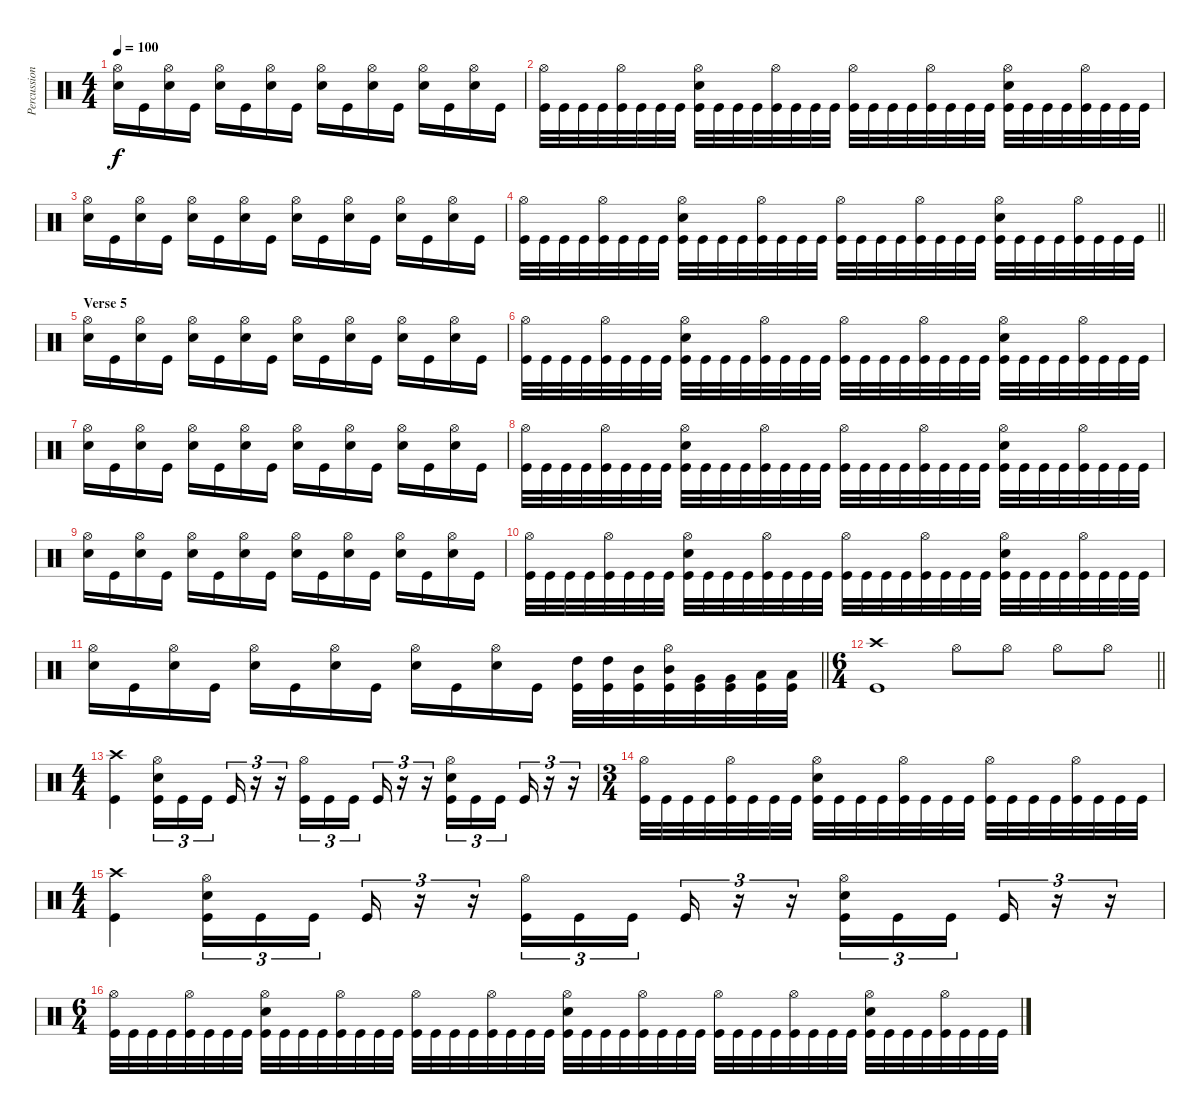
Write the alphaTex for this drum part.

\track ("Percussions" "Percussion") {instrument percussion}
\staff {score}
\articulation defaults
\ts (4 4)
\section ("" "")
\tempo 100
\clef neutral
\ks c
("Hi-Hat (open)" "Electric Snare (hit)").16{dy f} "Kick (hit)".16 ("Hi-Hat (open)" "Electric Snare (hit)").16 "Kick (hit)".16 ("Hi-Hat (open)" "Electric Snare (hit)").16 "Kick (hit)".16 ("Hi-Hat (open)" "Electric Snare (hit)").16 "Kick (hit)".16 ("Hi-Hat (open)" "Electric Snare (hit)").16 "Kick (hit)".16 ("Hi-Hat (open)" "Electric Snare (hit)").16 "Kick (hit)".16 ("Hi-Hat (open)" "Electric Snare (hit)").16 "Kick (hit)".16 ("Hi-Hat (open)" "Electric Snare (hit)").16 "Kick (hit)".16 |
("Hi-Hat (open)" "Kick (hit)").32 "Kick (hit)".32 "Kick (hit)".32 "Kick (hit)".32 ("Hi-Hat (open)" "Kick (hit)").32 "Kick (hit)".32 "Kick (hit)".32 "Kick (hit)".32 ("Hi-Hat (open)" "Electric Snare (hit)" "Kick (hit)").32 "Kick (hit)".32 "Kick (hit)".32 "Kick (hit)".32 ("Hi-Hat (open)" "Kick (hit)").32 "Kick (hit)".32 "Kick (hit)".32 "Kick (hit)".32 ("Hi-Hat (open)" "Kick (hit)").32 "Kick (hit)".32 "Kick (hit)".32 "Kick (hit)".32 ("Hi-Hat (open)" "Kick (hit)").32 "Kick (hit)".32 "Kick (hit)".32 "Kick (hit)".32 ("Hi-Hat (open)" "Electric Snare (hit)" "Kick (hit)").32 "Kick (hit)".32 "Kick (hit)".32 "Kick (hit)".32 ("Hi-Hat (open)" "Kick (hit)").32 "Kick (hit)".32 "Kick (hit)".32 "Kick (hit)".32 |
("Hi-Hat (open)" "Electric Snare (hit)").16 "Kick (hit)".16 ("Hi-Hat (open)" "Electric Snare (hit)").16 "Kick (hit)".16 ("Hi-Hat (open)" "Electric Snare (hit)").16 "Kick (hit)".16 ("Hi-Hat (open)" "Electric Snare (hit)").16 "Kick (hit)".16 ("Hi-Hat (open)" "Electric Snare (hit)").16 "Kick (hit)".16 ("Hi-Hat (open)" "Electric Snare (hit)").16 "Kick (hit)".16 ("Hi-Hat (open)" "Electric Snare (hit)").16 "Kick (hit)".16 ("Hi-Hat (open)" "Electric Snare (hit)").16 "Kick (hit)".16 |
\barLineRight lightlight
("Hi-Hat (open)" "Kick (hit)").32 "Kick (hit)".32 "Kick (hit)".32 "Kick (hit)".32 ("Hi-Hat (open)" "Kick (hit)").32 "Kick (hit)".32 "Kick (hit)".32 "Kick (hit)".32 ("Hi-Hat (open)" "Electric Snare (hit)" "Kick (hit)").32 "Kick (hit)".32 "Kick (hit)".32 "Kick (hit)".32 ("Hi-Hat (open)" "Kick (hit)").32 "Kick (hit)".32 "Kick (hit)".32 "Kick (hit)".32 ("Hi-Hat (open)" "Kick (hit)").32 "Kick (hit)".32 "Kick (hit)".32 "Kick (hit)".32 ("Hi-Hat (open)" "Kick (hit)").32 "Kick (hit)".32 "Kick (hit)".32 "Kick (hit)".32 ("Hi-Hat (open)" "Electric Snare (hit)" "Kick (hit)").32 "Kick (hit)".32 "Kick (hit)".32 "Kick (hit)".32 ("Hi-Hat (open)" "Kick (hit)").32 "Kick (hit)".32 "Kick (hit)".32 "Kick (hit)".32 |
\section ("" "Verse 5")
("Hi-Hat (open)" "Electric Snare (hit)").16 "Kick (hit)".16 ("Hi-Hat (open)" "Electric Snare (hit)").16 "Kick (hit)".16 ("Hi-Hat (open)" "Electric Snare (hit)").16 "Kick (hit)".16 ("Hi-Hat (open)" "Electric Snare (hit)").16 "Kick (hit)".16 ("Hi-Hat (open)" "Electric Snare (hit)").16 "Kick (hit)".16 ("Hi-Hat (open)" "Electric Snare (hit)").16 "Kick (hit)".16 ("Hi-Hat (open)" "Electric Snare (hit)").16 "Kick (hit)".16 ("Hi-Hat (open)" "Electric Snare (hit)").16 "Kick (hit)".16 |
("Hi-Hat (open)" "Kick (hit)").32 "Kick (hit)".32 "Kick (hit)".32 "Kick (hit)".32 ("Hi-Hat (open)" "Kick (hit)").32 "Kick (hit)".32 "Kick (hit)".32 "Kick (hit)".32 ("Hi-Hat (open)" "Electric Snare (hit)" "Kick (hit)").32 "Kick (hit)".32 "Kick (hit)".32 "Kick (hit)".32 ("Hi-Hat (open)" "Kick (hit)").32 "Kick (hit)".32 "Kick (hit)".32 "Kick (hit)".32 ("Hi-Hat (open)" "Kick (hit)").32 "Kick (hit)".32 "Kick (hit)".32 "Kick (hit)".32 ("Hi-Hat (open)" "Kick (hit)").32 "Kick (hit)".32 "Kick (hit)".32 "Kick (hit)".32 ("Hi-Hat (open)" "Electric Snare (hit)" "Kick (hit)").32 "Kick (hit)".32 "Kick (hit)".32 "Kick (hit)".32 ("Hi-Hat (open)" "Kick (hit)").32 "Kick (hit)".32 "Kick (hit)".32 "Kick (hit)".32 |
("Hi-Hat (open)" "Electric Snare (hit)").16 "Kick (hit)".16 ("Hi-Hat (open)" "Electric Snare (hit)").16 "Kick (hit)".16 ("Hi-Hat (open)" "Electric Snare (hit)").16 "Kick (hit)".16 ("Hi-Hat (open)" "Electric Snare (hit)").16 "Kick (hit)".16 ("Hi-Hat (open)" "Electric Snare (hit)").16 "Kick (hit)".16 ("Hi-Hat (open)" "Electric Snare (hit)").16 "Kick (hit)".16 ("Hi-Hat (open)" "Electric Snare (hit)").16 "Kick (hit)".16 ("Hi-Hat (open)" "Electric Snare (hit)").16 "Kick (hit)".16 |
("Hi-Hat (open)" "Kick (hit)").32 "Kick (hit)".32 "Kick (hit)".32 "Kick (hit)".32 ("Hi-Hat (open)" "Kick (hit)").32 "Kick (hit)".32 "Kick (hit)".32 "Kick (hit)".32 ("Hi-Hat (open)" "Electric Snare (hit)" "Kick (hit)").32 "Kick (hit)".32 "Kick (hit)".32 "Kick (hit)".32 ("Hi-Hat (open)" "Kick (hit)").32 "Kick (hit)".32 "Kick (hit)".32 "Kick (hit)".32 ("Hi-Hat (open)" "Kick (hit)").32 "Kick (hit)".32 "Kick (hit)".32 "Kick (hit)".32 ("Hi-Hat (open)" "Kick (hit)").32 "Kick (hit)".32 "Kick (hit)".32 "Kick (hit)".32 ("Hi-Hat (open)" "Electric Snare (hit)" "Kick (hit)").32 "Kick (hit)".32 "Kick (hit)".32 "Kick (hit)".32 ("Hi-Hat (open)" "Kick (hit)").32 "Kick (hit)".32 "Kick (hit)".32 "Kick (hit)".32 |
("Hi-Hat (open)" "Electric Snare (hit)").16 "Kick (hit)".16 ("Hi-Hat (open)" "Electric Snare (hit)").16 "Kick (hit)".16 ("Hi-Hat (open)" "Electric Snare (hit)").16 "Kick (hit)".16 ("Hi-Hat (open)" "Electric Snare (hit)").16 "Kick (hit)".16 ("Hi-Hat (open)" "Electric Snare (hit)").16 "Kick (hit)".16 ("Hi-Hat (open)" "Electric Snare (hit)").16 "Kick (hit)".16 ("Hi-Hat (open)" "Electric Snare (hit)").16 "Kick (hit)".16 ("Hi-Hat (open)" "Electric Snare (hit)").16 "Kick (hit)".16 |
("Hi-Hat (open)" "Kick (hit)").32 "Kick (hit)".32 "Kick (hit)".32 "Kick (hit)".32 ("Hi-Hat (open)" "Kick (hit)").32 "Kick (hit)".32 "Kick (hit)".32 "Kick (hit)".32 ("Hi-Hat (open)" "Electric Snare (hit)" "Kick (hit)").32 "Kick (hit)".32 "Kick (hit)".32 "Kick (hit)".32 ("Hi-Hat (open)" "Kick (hit)").32 "Kick (hit)".32 "Kick (hit)".32 "Kick (hit)".32 ("Hi-Hat (open)" "Kick (hit)").32 "Kick (hit)".32 "Kick (hit)".32 "Kick (hit)".32 ("Hi-Hat (open)" "Kick (hit)").32 "Kick (hit)".32 "Kick (hit)".32 "Kick (hit)".32 ("Hi-Hat (open)" "Electric Snare (hit)" "Kick (hit)").32 "Kick (hit)".32 "Kick (hit)".32 "Kick (hit)".32 ("Hi-Hat (open)" "Kick (hit)").32 "Kick (hit)".32 "Kick (hit)".32 "Kick (hit)".32 |
\barLineRight lightlight
("Hi-Hat (open)" "Electric Snare (hit)").16 "Kick (hit)".16 ("Hi-Hat (open)" "Electric Snare (hit)").16 "Kick (hit)".16 ("Hi-Hat (open)" "Electric Snare (hit)").16 "Kick (hit)".16 ("Hi-Hat (open)" "Electric Snare (hit)").16 "Kick (hit)".16 ("Hi-Hat (open)" "Electric Snare (hit)").16 "Kick (hit)".16 ("Hi-Hat (open)" "Electric Snare (hit)").16 "Kick (hit)".16 ("High Tom (hit)" "Kick (hit)").32 ("High Tom (hit)" "Kick (hit)").32 ("Mid Tom (hit)" "Kick (hit)").32 ("Hi-Hat (open)" "Mid Tom (hit)" "Kick (hit)").32 ("Very Low Tom (hit)" "Kick (hit)").32 ("Very Low Tom (hit)" "Kick (hit)").32 ("Low Floor Tom (hit)" "Kick (hit)").32 ("Low Floor Tom (hit)" "Kick (hit)").32 |
\ts (6 4)
\section ("" "")
\barLineRight lightlight
("Crash high (hit)" "Kick (hit)").1 "Hi-Hat (open)".8 "Hi-Hat (open)".8 "Hi-Hat (open)".8 "Hi-Hat (open)".8 |
\ts (4 4)
\section ("" "")
("Crash high (hit)" "Kick (hit)").4 ("Hi-Hat (open)" "Electric Snare (hit)" "Kick (hit)").16{tu (3 2)} "Kick (hit)".16{tu (3 2)} "Kick (hit)".16{tu (3 2) beam splitsecondary} "Kick (hit)".16{tu (3 2)} r.16{tu (3 2)} r.16{tu (3 2)} ("Hi-Hat (open)" "Kick (hit)").16{tu (3 2)} "Kick (hit)".16{tu (3 2)} "Kick (hit)".16{tu (3 2) beam splitsecondary} "Kick (hit)".16{tu (3 2)} r.16{tu (3 2)} r.16{tu (3 2)} ("Hi-Hat (open)" "Electric Snare (hit)" "Kick (hit)").16{tu (3 2)} "Kick (hit)".16{tu (3 2)} "Kick (hit)".16{tu (3 2) beam splitsecondary} "Kick (hit)".16{tu (3 2)} r.16{tu (3 2)} r.16{tu (3 2)} |
\ts (3 4)
("Hi-Hat (open)" "Kick (hit)").32 "Kick (hit)".32 "Kick (hit)".32 "Kick (hit)".32 ("Hi-Hat (open)" "Kick (hit)").32 "Kick (hit)".32 "Kick (hit)".32 "Kick (hit)".32 ("Hi-Hat (open)" "Electric Snare (hit)" "Kick (hit)").32 "Kick (hit)".32 "Kick (hit)".32 "Kick (hit)".32 ("Hi-Hat (open)" "Kick (hit)").32 "Kick (hit)".32 "Kick (hit)".32 "Kick (hit)".32 ("Hi-Hat (open)" "Kick (hit)").32 "Kick (hit)".32 "Kick (hit)".32 "Kick (hit)".32 ("Hi-Hat (open)" "Kick (hit)").32 "Kick (hit)".32 "Kick (hit)".32 "Kick (hit)".32 |
\ts (4 4)
("Crash high (hit)" "Kick (hit)").4 ("Hi-Hat (open)" "Electric Snare (hit)" "Kick (hit)").16{tu (3 2)} "Kick (hit)".16{tu (3 2)} "Kick (hit)".16{tu (3 2) beam splitsecondary} "Kick (hit)".16{tu (3 2)} r.16{tu (3 2)} r.16{tu (3 2)} ("Hi-Hat (open)" "Kick (hit)").16{tu (3 2)} "Kick (hit)".16{tu (3 2)} "Kick (hit)".16{tu (3 2) beam splitsecondary} "Kick (hit)".16{tu (3 2)} r.16{tu (3 2)} r.16{tu (3 2)} ("Hi-Hat (open)" "Electric Snare (hit)" "Kick (hit)").16{tu (3 2)} "Kick (hit)".16{tu (3 2)} "Kick (hit)".16{tu (3 2) beam splitsecondary} "Kick (hit)".16{tu (3 2)} r.16{tu (3 2)} r.16{tu (3 2)} |
\ts (6 4)
("Hi-Hat (open)" "Kick (hit)").32 "Kick (hit)".32 "Kick (hit)".32 "Kick (hit)".32 ("Hi-Hat (open)" "Kick (hit)").32 "Kick (hit)".32 "Kick (hit)".32 "Kick (hit)".32 ("Hi-Hat (open)" "Electric Snare (hit)" "Kick (hit)").32 "Kick (hit)".32 "Kick (hit)".32 "Kick (hit)".32 ("Hi-Hat (open)" "Kick (hit)").32 "Kick (hit)".32 "Kick (hit)".32 "Kick (hit)".32 ("Hi-Hat (open)" "Kick (hit)").32 "Kick (hit)".32 "Kick (hit)".32 "Kick (hit)".32 ("Hi-Hat (open)" "Kick (hit)").32 "Kick (hit)".32 "Kick (hit)".32 "Kick (hit)".32 ("Hi-Hat (open)" "Electric Snare (hit)" "Kick (hit)").32 "Kick (hit)".32 "Kick (hit)".32 "Kick (hit)".32 ("Hi-Hat (open)" "Kick (hit)").32 "Kick (hit)".32 "Kick (hit)".32 "Kick (hit)".32 ("Hi-Hat (open)" "Kick (hit)").32 "Kick (hit)".32 "Kick (hit)".32 "Kick (hit)".32 ("Hi-Hat (open)" "Kick (hit)").32 "Kick (hit)".32 "Kick (hit)".32 "Kick (hit)".32 ("Hi-Hat (open)" "Electric Snare (hit)" "Kick (hit)").32 "Kick (hit)".32 "Kick (hit)".32 "Kick (hit)".32 ("Hi-Hat (open)" "Kick (hit)").32 "Kick (hit)".32 "Kick (hit)".32 "Kick (hit)".32
